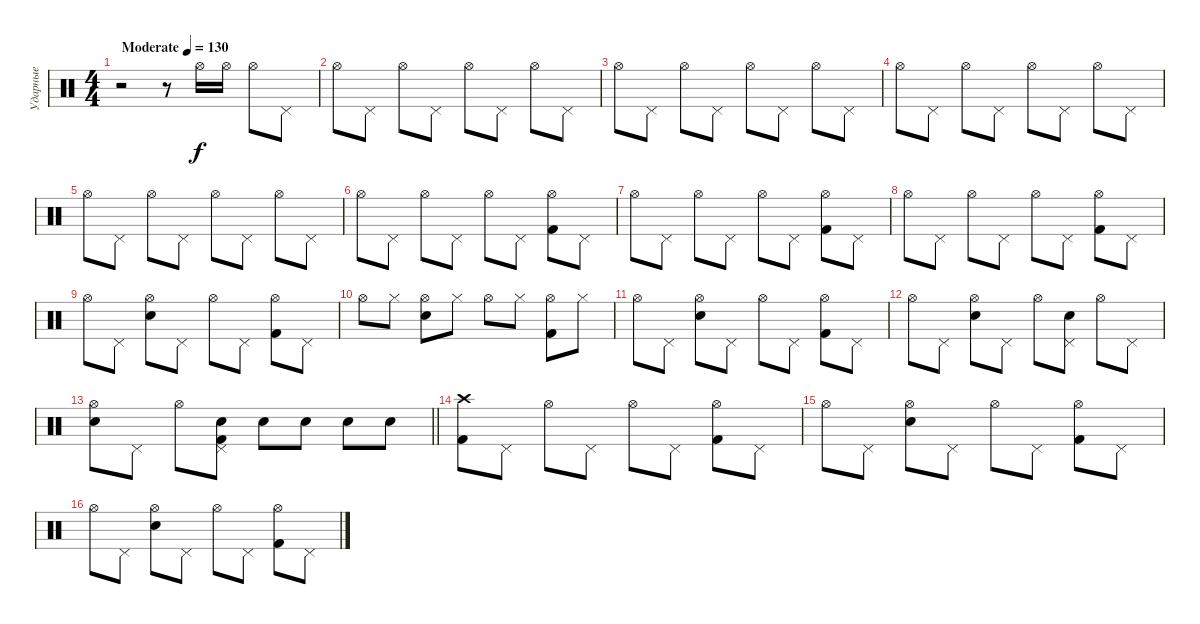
\track ("Ударные" "Ударные") {instrument percussion}
\staff {score}
\articulation defaults
\ts (4 4)
\tempo (130 "Moderate")
\clef neutral
\ks c
r.2{dy f} r.8 "Hi-Hat (open)".16 "Hi-Hat (open)".16 "Hi-Hat (open)".8 "Pedal Hi-Hat (hit)".8 |
"Hi-Hat (open)".8 "Pedal Hi-Hat (hit)".8 "Hi-Hat (open)".8 "Pedal Hi-Hat (hit)".8 "Hi-Hat (open)".8 "Pedal Hi-Hat (hit)".8 "Hi-Hat (open)".8 "Pedal Hi-Hat (hit)".8 |
"Hi-Hat (open)".8 "Pedal Hi-Hat (hit)".8 "Hi-Hat (open)".8 "Pedal Hi-Hat (hit)".8 "Hi-Hat (open)".8 "Pedal Hi-Hat (hit)".8 "Hi-Hat (open)".8 "Pedal Hi-Hat (hit)".8 |
"Hi-Hat (open)".8 "Pedal Hi-Hat (hit)".8 "Hi-Hat (open)".8 "Pedal Hi-Hat (hit)".8 "Hi-Hat (open)".8 "Pedal Hi-Hat (hit)".8 "Hi-Hat (open)".8 "Pedal Hi-Hat (hit)".8 |
"Hi-Hat (open)".8 "Pedal Hi-Hat (hit)".8 "Hi-Hat (open)".8 "Pedal Hi-Hat (hit)".8 "Hi-Hat (open)".8 "Pedal Hi-Hat (hit)".8 "Hi-Hat (open)".8 "Pedal Hi-Hat (hit)".8 |
"Hi-Hat (open)".8 "Pedal Hi-Hat (hit)".8 "Hi-Hat (open)".8 "Pedal Hi-Hat (hit)".8 "Hi-Hat (open)".8 "Pedal Hi-Hat (hit)".8 ("Kick (hit) 2" "Hi-Hat (open)").8 "Pedal Hi-Hat (hit)".8 |
"Hi-Hat (open)".8 "Pedal Hi-Hat (hit)".8 "Hi-Hat (open)".8 "Pedal Hi-Hat (hit)".8 "Hi-Hat (open)".8 "Pedal Hi-Hat (hit)".8 ("Kick (hit) 2" "Hi-Hat (open)").8 "Pedal Hi-Hat (hit)".8 |
"Hi-Hat (open)".8 "Pedal Hi-Hat (hit)".8 "Hi-Hat (open)".8 "Pedal Hi-Hat (hit)".8 "Hi-Hat (open)".8 "Pedal Hi-Hat (hit)".8 ("Kick (hit) 2" "Hi-Hat (open)").8 "Pedal Hi-Hat (hit)".8 |
"Hi-Hat (open)".8 "Pedal Hi-Hat (hit)".8 ("Snare (hit) 2" "Hi-Hat (open)").8 "Pedal Hi-Hat (hit)".8 "Hi-Hat (open)".8 "Pedal Hi-Hat (hit)".8 ("Kick (hit) 2" "Hi-Hat (open)").8 "Pedal Hi-Hat (hit)".8 |
"Hi-Hat (open)".8 "Hi-Hat (closed)".8 ("Snare (hit) 2" "Hi-Hat (open)").8 "Hi-Hat (closed)".8 "Hi-Hat (open)".8 "Hi-Hat (closed)".8 ("Kick (hit) 2" "Hi-Hat (open)").8 "Hi-Hat (closed)".8 |
"Hi-Hat (open)".8 "Pedal Hi-Hat (hit)".8 ("Snare (hit) 2" "Hi-Hat (open)").8 "Pedal Hi-Hat (hit)".8 "Hi-Hat (open)".8 "Pedal Hi-Hat (hit)".8 ("Kick (hit) 2" "Hi-Hat (open)").8 "Pedal Hi-Hat (hit)".8 |
"Hi-Hat (open)".8 "Pedal Hi-Hat (hit)".8 ("Snare (hit) 2" "Hi-Hat (open)").8 "Pedal Hi-Hat (hit)".8 "Hi-Hat (open)".8 ("Snare (hit) 2" "Pedal Hi-Hat (hit)").8 "Hi-Hat (open)".8 "Pedal Hi-Hat (hit)".8 |
\barLineRight lightlight
("Snare (hit) 2" "Hi-Hat (open)").8 "Pedal Hi-Hat (hit)".8 "Hi-Hat (open)".8 ("Kick (hit) 2" "Snare (hit) 2" "Pedal Hi-Hat (hit)").8 "Snare (hit) 2".8 "Snare (hit) 2".8 "Snare (hit) 2".8 "Snare (hit) 2".8 |
("Kick (hit) 2" "Crash high (hit)").8 "Pedal Hi-Hat (hit)".8 "Hi-Hat (open)".8 "Pedal Hi-Hat (hit)".8 "Hi-Hat (open)".8 "Pedal Hi-Hat (hit)".8 ("Kick (hit) 2" "Hi-Hat (open)").8 "Pedal Hi-Hat (hit)".8 |
"Hi-Hat (open)".8 "Pedal Hi-Hat (hit)".8 ("Snare (hit) 2" "Hi-Hat (open)").8 "Pedal Hi-Hat (hit)".8 "Hi-Hat (open)".8 "Pedal Hi-Hat (hit)".8 ("Kick (hit) 2" "Hi-Hat (open)").8 "Pedal Hi-Hat (hit)".8 |
"Hi-Hat (open)".8 "Pedal Hi-Hat (hit)".8 ("Snare (hit) 2" "Hi-Hat (open)").8 "Pedal Hi-Hat (hit)".8 "Hi-Hat (open)".8 "Pedal Hi-Hat (hit)".8 ("Kick (hit) 2" "Hi-Hat (open)").8 "Pedal Hi-Hat (hit)".8
